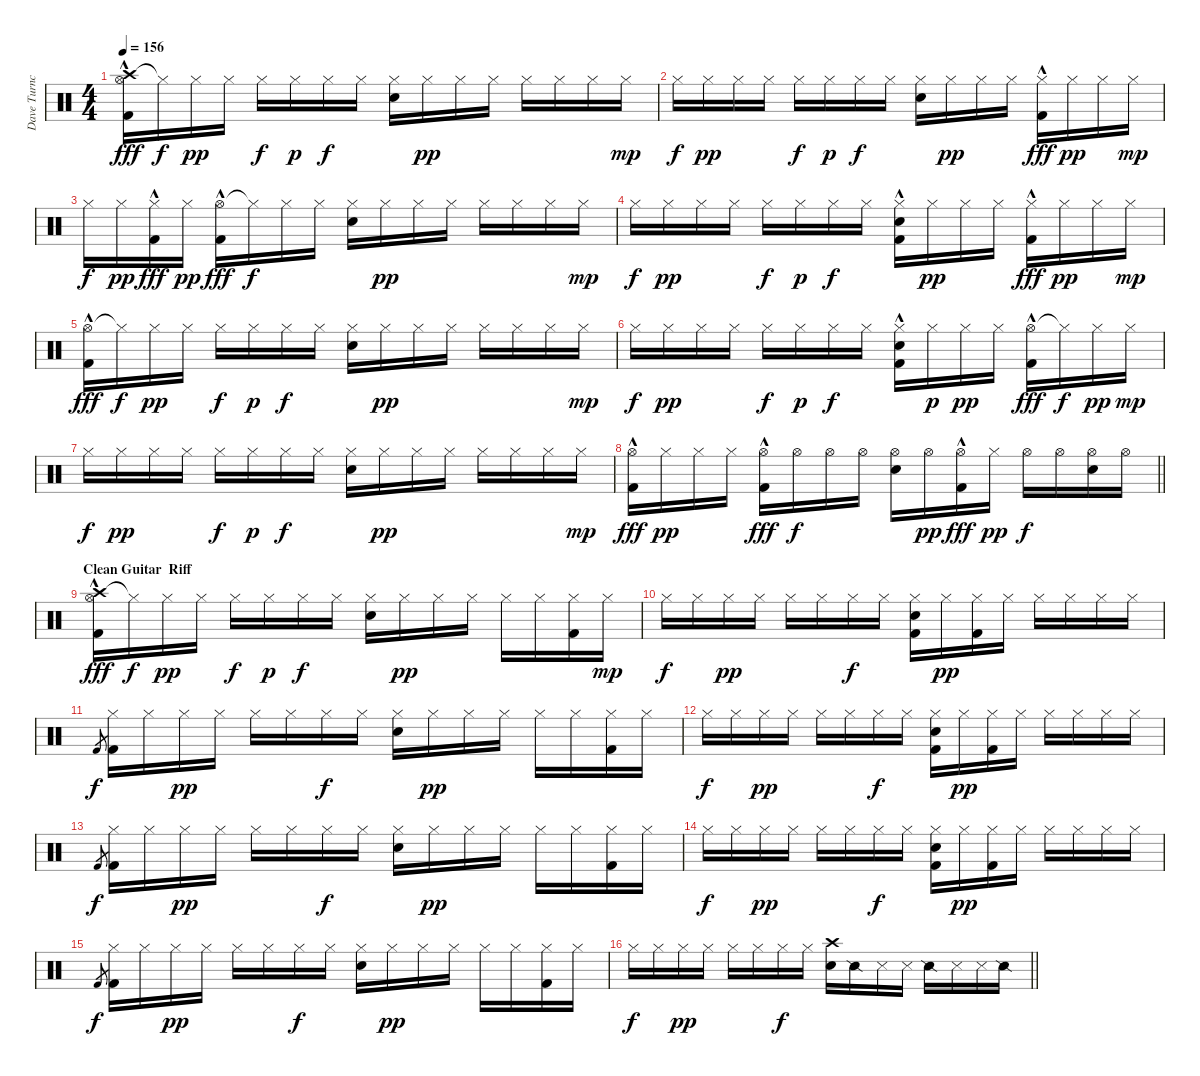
\track ("Dave Turncrantz" "Dave Turnc") {instrument percussion}
\staff {score}
\articulation defaults
\ts (4 4)
\section ("" "")
\tempo 156
\clef neutral
\ks c
("Crash high (hit)" "Hi-Hat (open)" "Kick (hit) 2"{hac}).16{dy fff} "Hi-Hat (closed)"{t}.16{dy f} "Hi-Hat (closed)".16{dy pp} "Hi-Hat (closed)".16 "Hi-Hat (closed)".16{dy f} "Hi-Hat (closed)".16{dy p} "Hi-Hat (closed)".16{dy f} "Hi-Hat (closed)".16 ("Hi-Hat (closed)" "Electric Snare (hit)").16 "Hi-Hat (closed)".16{dy pp} "Hi-Hat (closed)".16 "Hi-Hat (closed)".16 "Hi-Hat (closed)".16 "Hi-Hat (closed)".16 "Hi-Hat (closed)".16 "Hi-Hat (closed)".16{dy mp} |
"Hi-Hat (closed)".16{dy f} "Hi-Hat (closed)".16{dy pp} "Hi-Hat (closed)".16 "Hi-Hat (closed)".16 "Hi-Hat (closed)".16{dy f} "Hi-Hat (closed)".16{dy p} "Hi-Hat (closed)".16{dy f} "Hi-Hat (closed)".16 ("Hi-Hat (closed)" "Electric Snare (hit)").16 "Hi-Hat (closed)".16{dy pp} "Hi-Hat (closed)".16 "Hi-Hat (closed)".16 ("Hi-Hat (closed)" "Kick (hit) 2"{hac}).16{dy fff} "Hi-Hat (closed)".16{dy pp} "Hi-Hat (closed)".16 "Hi-Hat (closed)".16{dy mp} |
"Hi-Hat (closed)".16{dy f} "Hi-Hat (closed)".16{dy pp} ("Hi-Hat (closed)" "Kick (hit) 2"{hac}).16{dy fff} "Hi-Hat (closed)".16{dy pp} ("Hi-Hat (open)" "Kick (hit) 2"{hac}).16{dy fff} "Hi-Hat (closed)"{t}.16{dy f} "Hi-Hat (closed)".16 "Hi-Hat (closed)".16 ("Hi-Hat (closed)" "Electric Snare (hit)").16 "Hi-Hat (closed)".16{dy pp} "Hi-Hat (closed)".16 "Hi-Hat (closed)".16 "Hi-Hat (closed)".16 "Hi-Hat (closed)".16 "Hi-Hat (closed)".16 "Hi-Hat (closed)".16{dy mp} |
"Hi-Hat (closed)".16{dy f} "Hi-Hat (closed)".16{dy pp} "Hi-Hat (closed)".16 "Hi-Hat (closed)".16 "Hi-Hat (closed)".16{dy f} "Hi-Hat (closed)".16{dy p} "Hi-Hat (closed)".16{dy f} "Hi-Hat (closed)".16 ("Hi-Hat (closed)" "Electric Snare (hit)" "Kick (hit) 2"{hac}).16 "Hi-Hat (closed)".16{dy pp} "Hi-Hat (closed)".16 "Hi-Hat (closed)".16 ("Hi-Hat (closed)" "Kick (hit) 2"{hac}).16{dy fff} "Hi-Hat (closed)".16{dy pp} "Hi-Hat (closed)".16 "Hi-Hat (closed)".16{dy mp} |
("Hi-Hat (open)" "Kick (hit) 2"{hac}).16{dy fff} "Hi-Hat (closed)"{t}.16{dy f} "Hi-Hat (closed)".16{dy pp} "Hi-Hat (closed)".16 "Hi-Hat (closed)".16{dy f} "Hi-Hat (closed)".16{dy p} "Hi-Hat (closed)".16{dy f} "Hi-Hat (closed)".16 ("Hi-Hat (closed)" "Electric Snare (hit)").16 "Hi-Hat (closed)".16{dy pp} "Hi-Hat (closed)".16 "Hi-Hat (closed)".16 "Hi-Hat (closed)".16 "Hi-Hat (closed)".16 "Hi-Hat (closed)".16 "Hi-Hat (closed)".16{dy mp} |
"Hi-Hat (closed)".16{dy f} "Hi-Hat (closed)".16{dy pp} "Hi-Hat (closed)".16 "Hi-Hat (closed)".16 "Hi-Hat (closed)".16{dy f} "Hi-Hat (closed)".16{dy p} "Hi-Hat (closed)".16{dy f} "Hi-Hat (closed)".16 ("Hi-Hat (closed)" "Electric Snare (hit)" "Kick (hit) 2"{hac}).16 "Hi-Hat (closed)".16{dy p} "Hi-Hat (closed)".16{dy pp} "Hi-Hat (closed)".16 ("Hi-Hat (open)" "Kick (hit) 2"{hac}).16{dy fff} "Hi-Hat (closed)"{t}.16{dy f} "Hi-Hat (closed)".16{dy pp} "Hi-Hat (closed)".16{dy mp} |
"Hi-Hat (closed)".16{dy f} "Hi-Hat (closed)".16{dy pp} "Hi-Hat (closed)".16 "Hi-Hat (closed)".16 "Hi-Hat (closed)".16{dy f} "Hi-Hat (closed)".16{dy p} "Hi-Hat (closed)".16{dy f} "Hi-Hat (closed)".16 ("Hi-Hat (closed)" "Electric Snare (hit)").16 "Hi-Hat (closed)".16{dy pp} "Hi-Hat (closed)".16 "Hi-Hat (closed)".16 "Hi-Hat (closed)".16 "Hi-Hat (closed)".16 "Hi-Hat (closed)".16 "Hi-Hat (closed)".16{dy mp} |
\barLineRight lightlight
("Hi-Hat (open)" "Kick (hit) 2"{hac}).16{dy fff} "Hi-Hat (closed)".16{dy pp} "Hi-Hat (closed)".16 "Hi-Hat (closed)".16 ("Hi-Hat (open)" "Kick (hit) 2"{hac}).16{dy fff} "Hi-Hat (open)".16{dy f} "Hi-Hat (open)".16 "Hi-Hat (open)".16 ("Hi-Hat (open)" "Electric Snare (hit)").16 "Hi-Hat (open)".16{dy pp} ("Hi-Hat (open)" "Kick (hit) 2"{hac}).16{dy fff} "Hi-Hat (closed)".16{dy pp} "Hi-Hat (open)".16{dy f} "Hi-Hat (open)".16 ("Hi-Hat (open)" "Electric Snare (hit)").16 "Hi-Hat (open)".16 |
\section ("" "Clean Guitar  Riff")
("Crash high (hit)" "Hi-Hat (open)" "Kick (hit) 2"{hac}).16{dy fff} "Hi-Hat (closed)"{t}.16{dy f} "Hi-Hat (closed)".16{dy pp} "Hi-Hat (closed)".16 "Hi-Hat (closed)".16{dy f} "Hi-Hat (closed)".16{dy p} "Hi-Hat (closed)".16{dy f} "Hi-Hat (closed)".16 ("Hi-Hat (closed)" "Electric Snare (hit)").16 "Hi-Hat (closed)".16{dy pp} "Hi-Hat (closed)".16 "Hi-Hat (closed)".16 "Hi-Hat (closed)".16 "Hi-Hat (closed)".16 ("Hi-Hat (closed)" "Kick (hit) 2").16 "Hi-Hat (closed)".16{dy mp} |
"Hi-Hat (closed)".16{dy f} "Hi-Hat (closed)".16 "Hi-Hat (closed)".16{dy pp} "Hi-Hat (closed)".16 "Hi-Hat (closed)".16 "Hi-Hat (closed)".16 "Hi-Hat (closed)".16{dy f} "Hi-Hat (closed)".16 ("Hi-Hat (closed)" "Electric Snare (hit)" "Kick (hit) 2").16 "Hi-Hat (closed)".16{dy pp} ("Hi-Hat (closed)" "Kick (hit) 2").16 "Hi-Hat (closed)".16 "Hi-Hat (closed)".16 "Hi-Hat (closed)".16 "Hi-Hat (closed)".16 "Hi-Hat (closed)".16 |
"Kick (hit) 2".8{gr dy f} ("Hi-Hat (closed)" "Kick (hit) 2").16 "Hi-Hat (closed)".16 "Hi-Hat (closed)".16{dy pp} "Hi-Hat (closed)".16 "Hi-Hat (closed)".16 "Hi-Hat (closed)".16 "Hi-Hat (closed)".16{dy f} "Hi-Hat (closed)".16 ("Hi-Hat (closed)" "Electric Snare (hit)").16 "Hi-Hat (closed)".16{dy pp} "Hi-Hat (closed)".16 "Hi-Hat (closed)".16 "Hi-Hat (closed)".16 "Hi-Hat (closed)".16 ("Hi-Hat (closed)" "Kick (hit) 2").16 "Hi-Hat (closed)".16 |
"Hi-Hat (closed)".16{dy f} "Hi-Hat (closed)".16 "Hi-Hat (closed)".16{dy pp} "Hi-Hat (closed)".16 "Hi-Hat (closed)".16 "Hi-Hat (closed)".16 "Hi-Hat (closed)".16{dy f} "Hi-Hat (closed)".16 ("Hi-Hat (closed)" "Electric Snare (hit)" "Kick (hit) 2").16 "Hi-Hat (closed)".16{dy pp} ("Hi-Hat (closed)" "Kick (hit) 2").16 "Hi-Hat (closed)".16 "Hi-Hat (closed)".16 "Hi-Hat (closed)".16 "Hi-Hat (closed)".16 "Hi-Hat (closed)".16 |
"Kick (hit) 2".8{gr dy f} ("Hi-Hat (closed)" "Kick (hit) 2").16 "Hi-Hat (closed)".16 "Hi-Hat (closed)".16{dy pp} "Hi-Hat (closed)".16 "Hi-Hat (closed)".16 "Hi-Hat (closed)".16 "Hi-Hat (closed)".16{dy f} "Hi-Hat (closed)".16 ("Hi-Hat (closed)" "Electric Snare (hit)").16 "Hi-Hat (closed)".16{dy pp} "Hi-Hat (closed)".16 "Hi-Hat (closed)".16 "Hi-Hat (closed)".16 "Hi-Hat (closed)".16 ("Hi-Hat (closed)" "Kick (hit) 2").16 "Hi-Hat (closed)".16 |
"Hi-Hat (closed)".16{dy f} "Hi-Hat (closed)".16 "Hi-Hat (closed)".16{dy pp} "Hi-Hat (closed)".16 "Hi-Hat (closed)".16 "Hi-Hat (closed)".16 "Hi-Hat (closed)".16{dy f} "Hi-Hat (closed)".16 ("Hi-Hat (closed)" "Electric Snare (hit)" "Kick (hit) 2").16 "Hi-Hat (closed)".16{dy pp} ("Hi-Hat (closed)" "Kick (hit) 2").16 "Hi-Hat (closed)".16 "Hi-Hat (closed)".16 "Hi-Hat (closed)".16 "Hi-Hat (closed)".16 "Hi-Hat (closed)".16 |
"Kick (hit) 2".8{gr dy f} ("Hi-Hat (closed)" "Kick (hit) 2").16 "Hi-Hat (closed)".16 "Hi-Hat (closed)".16{dy pp} "Hi-Hat (closed)".16 "Hi-Hat (closed)".16 "Hi-Hat (closed)".16 "Hi-Hat (closed)".16{dy f} "Hi-Hat (closed)".16 ("Hi-Hat (closed)" "Electric Snare (hit)").16 "Hi-Hat (closed)".16{dy pp} "Hi-Hat (closed)".16 "Hi-Hat (closed)".16 "Hi-Hat (closed)".16 "Hi-Hat (closed)".16 ("Hi-Hat (closed)" "Kick (hit) 2").16 "Hi-Hat (closed)".16 |
\barLineRight lightlight "Hi-Hat (closed)".16{dy f} "Hi-Hat (closed)".16 "Hi-Hat (closed)".16{dy pp} "Hi-Hat (closed)".16 "Hi-Hat (closed)".16 "Hi-Hat (closed)".16 "Hi-Hat (closed)".16{dy f} "Hi-Hat (closed)".16
("Crash high (hit)" "Electric Snare (hit)").16 "Snare (side stick) 2".16 "Snare (side stick) 3".16 "Snare (side stick) 3".16 "Snare (side stick) 2".16 "Snare (side stick) 3".16 "Snare (side stick) 3".16 "Snare (side stick) 2".16
